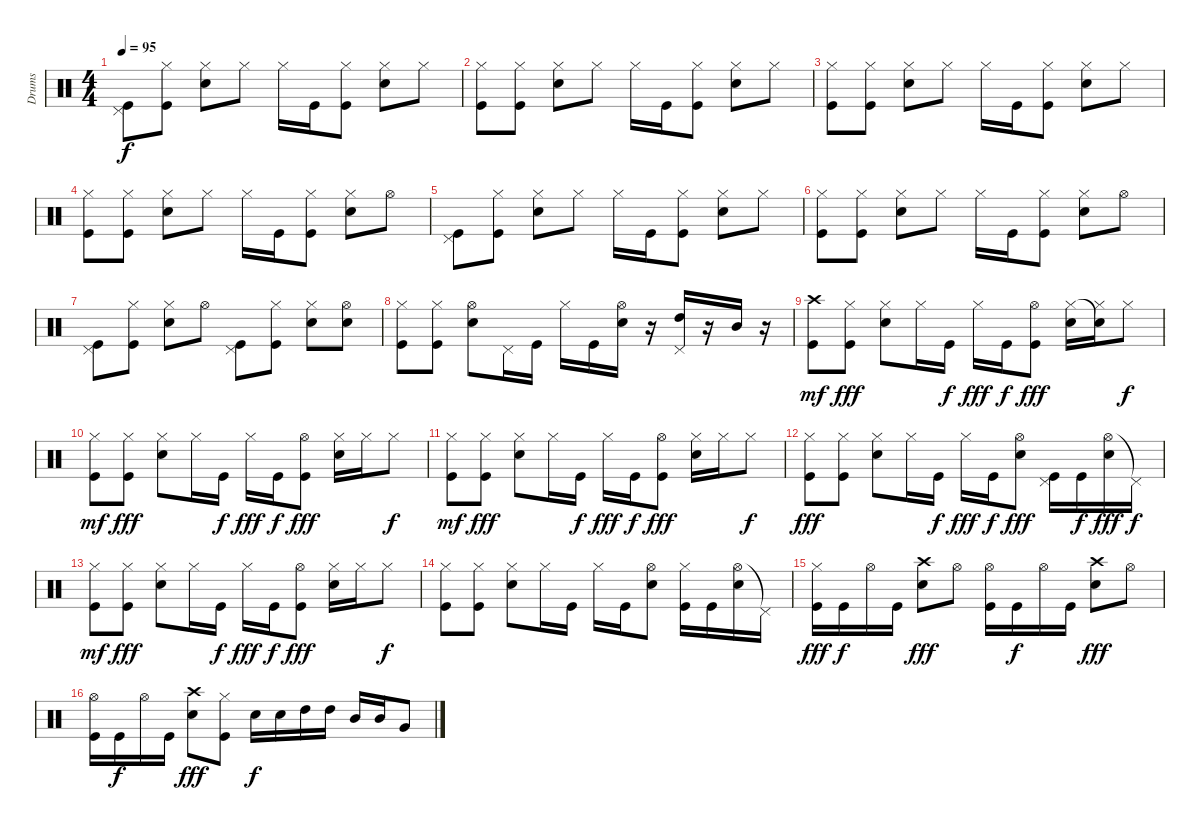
\track ("Drums" "Drums") {instrument percussion}
\staff {score}
\articulation defaults
\ts (4 4)
\tempo 95
\clef neutral
\ks c
("Pedal Hi-Hat (hit)" "Kick (hit)").8{dy f} ("Hi-Hat (closed)" "Kick (hit)").8 ("Hi-Hat (closed)" "Electric Snare (hit)").8 "Hi-Hat (closed)".8 "Hi-Hat (closed)".16 "Kick (hit)".16 ("Hi-Hat (closed)" "Kick (hit)").8 ("Hi-Hat (closed)" "Electric Snare (hit)").8 "Hi-Hat (closed)".8 |
("Hi-Hat (closed)" "Kick (hit)").8 ("Hi-Hat (closed)" "Kick (hit)").8 ("Hi-Hat (closed)" "Electric Snare (hit)").8 "Hi-Hat (closed)".8 "Hi-Hat (closed)".16 "Kick (hit)".16 ("Hi-Hat (closed)" "Kick (hit)").8 ("Hi-Hat (closed)" "Electric Snare (hit)").8 "Hi-Hat (closed)".8 |
("Hi-Hat (closed)" "Kick (hit)").8 ("Hi-Hat (closed)" "Kick (hit)").8 ("Hi-Hat (closed)" "Electric Snare (hit)").8 "Hi-Hat (closed)".8 "Hi-Hat (closed)".16 "Kick (hit)".16 ("Hi-Hat (closed)" "Kick (hit)").8 ("Hi-Hat (closed)" "Electric Snare (hit)").8 "Hi-Hat (closed)".8 |
("Hi-Hat (closed)" "Kick (hit)").8 ("Hi-Hat (closed)" "Kick (hit)").8 ("Hi-Hat (closed)" "Electric Snare (hit)").8 "Hi-Hat (closed)".8 "Hi-Hat (closed)".16 "Kick (hit)".16 ("Hi-Hat (closed)" "Kick (hit)").8 ("Hi-Hat (closed)" "Electric Snare (hit)").8 "Hi-Hat (open)".8 |
("Pedal Hi-Hat (hit)" "Kick (hit)").8 ("Hi-Hat (closed)" "Kick (hit)").8 ("Hi-Hat (closed)" "Electric Snare (hit)").8 "Hi-Hat (closed)".8 "Hi-Hat (closed)".16 "Kick (hit)".16 ("Hi-Hat (closed)" "Kick (hit)").8 ("Hi-Hat (closed)" "Electric Snare (hit)").8 "Hi-Hat (closed)".8 |
("Hi-Hat (closed)" "Kick (hit)").8 ("Hi-Hat (closed)" "Kick (hit)").8 ("Hi-Hat (closed)" "Electric Snare (hit)").8 "Hi-Hat (closed)".8 "Hi-Hat (closed)".16 "Kick (hit)".16 ("Hi-Hat (closed)" "Kick (hit)").8 ("Hi-Hat (closed)" "Electric Snare (hit)").8 "Hi-Hat (open)".8 |
("Pedal Hi-Hat (hit)" "Kick (hit)").8 ("Hi-Hat (closed)" "Kick (hit)").8 ("Hi-Hat (closed)" "Electric Snare (hit)").8 "Hi-Hat (open)".8 ("Pedal Hi-Hat (hit)" "Kick (hit)").8 ("Hi-Hat (closed)" "Kick (hit)").8 ("Hi-Hat (closed)" "Electric Snare (hit)").8 ("Hi-Hat (open)" "Electric Snare (hit)").8 |
("Hi-Hat (closed)" "Kick (hit)").8 ("Hi-Hat (closed)" "Kick (hit)").8 ("Hi-Hat (open)" "Electric Snare (hit)").8 "Pedal Hi-Hat (hit)".16 "Kick (hit)".16 "Hi-Hat (closed)".16 "Kick (hit)".16 ("Hi-Hat (open)" "Electric Snare (hit)").16 r.16 ("Pedal Hi-Hat (hit)" "High Tom (hit)").16 r.16 "Mid Tom (hit)".16 r.16 |
("Crash high (hit)" "Kick (hit)").8{dy mf} ("Hi-Hat (closed)" "Kick (hit)").8{dy fff} ("Hi-Hat (closed)" "Electric Snare (hit)").8 "Hi-Hat (closed)".16 "Kick (hit)".16{dy f} "Hi-Hat (closed)".16{dy fff} "Kick (hit)".16{dy f} ("Hi-Hat (open)" "Kick (hit)").8{dy fff} ("Hi-Hat (closed)" "Electric Snare (hit)").16 ("Snare (hit)"{t} "Hi-Hat (closed)").16 "Hi-Hat (closed)".8{dy f} |
("Hi-Hat (closed)" "Kick (hit)").8{dy mf} ("Hi-Hat (closed)" "Kick (hit)").8{dy fff} ("Hi-Hat (closed)" "Electric Snare (hit)").8 "Hi-Hat (closed)".16 "Kick (hit)".16{dy f} "Hi-Hat (closed)".16{dy fff} "Kick (hit)".16{dy f} ("Hi-Hat (open)" "Kick (hit)").8{dy fff} ("Hi-Hat (closed)" "Electric Snare (hit)").16 "Hi-Hat (closed)".16 "Hi-Hat (closed)".8{dy f} |
("Hi-Hat (closed)" "Kick (hit)").8{dy mf} ("Hi-Hat (closed)" "Kick (hit)").8{dy fff} ("Hi-Hat (closed)" "Electric Snare (hit)").8 "Hi-Hat (closed)".16 "Kick (hit)".16{dy f} "Hi-Hat (closed)".16{dy fff} "Kick (hit)".16{dy f} ("Hi-Hat (open)" "Kick (hit)").8{dy fff} ("Hi-Hat (closed)" "Electric Snare (hit)").16 "Hi-Hat (closed)".16 "Hi-Hat (closed)".8{dy f} |
("Hi-Hat (closed)" "Kick (hit)").8{dy fff} ("Hi-Hat (closed)" "Kick (hit)").8 ("Hi-Hat (closed)" "Electric Snare (hit)").8 "Hi-Hat (closed)".16 "Kick (hit)".16{dy f} "Hi-Hat (closed)".16{dy fff} "Kick (hit)".16{dy f} ("Hi-Hat (open)" "Electric Snare (hit)").8{dy fff} ("Pedal Hi-Hat (hit)" "Kick (hit)").16 "Kick (hit)".16{dy f} ("Hi-Hat (open)" "Electric Snare (hit)").16{dy fff} "Pedal Hi-Hat (hit)"{t}.16{dy f} |
("Hi-Hat (closed)" "Kick (hit)").8{dy mf} ("Hi-Hat (closed)" "Kick (hit)").8{dy fff} ("Hi-Hat (closed)" "Electric Snare (hit)").8 "Hi-Hat (closed)".16 "Kick (hit)".16{dy f} "Hi-Hat (closed)".16{dy fff} "Kick (hit)".16{dy f} ("Hi-Hat (open)" "Kick (hit)").8{dy fff} ("Hi-Hat (closed)" "Electric Snare (hit)").16 "Hi-Hat (closed)".16 "Hi-Hat (closed)".8{dy f} |
("Hi-Hat (closed)" "Kick (hit)").8 ("Hi-Hat (closed)" "Kick (hit)").8 ("Hi-Hat (closed)" "Electric Snare (hit)").8 "Hi-Hat (closed)".16 "Kick (hit)".16 "Hi-Hat (closed)".16 "Kick (hit)".16 ("Hi-Hat (open)" "Electric Snare (hit)").8 ("Hi-Hat (closed)" "Kick (hit)").16 "Kick (hit)".16 ("Hi-Hat (open)" "Electric Snare (hit)").16 "Pedal Hi-Hat (hit)"{t}.16 |
("Hi-Hat (closed)" "Kick (hit)").16{dy fff} "Kick (hit)".16{dy f} "Hi-Hat (open)".16 "Kick (hit)".16 ("Crash high (hit)" "Electric Snare (hit)").8{dy fff} "Hi-Hat (open)".8 ("Hi-Hat (open)" "Kick (hit)").16 "Kick (hit)".16{dy f} "Hi-Hat (open)".16 "Kick (hit)".16 ("Crash high (hit)" "Electric Snare (hit)").8{dy fff} "Hi-Hat (open)".8 |
("Hi-Hat (open)" "Kick (hit)").16 "Kick (hit)".16{dy f} "Hi-Hat (open)".16 "Kick (hit)".16 ("Crash high (hit)" "Electric Snare (hit)").8{dy fff} ("Hi-Hat (closed)" "Kick (hit)").8 "Electric Snare (hit)".16{dy f} "Electric Snare (hit)".16 "High Tom (hit)".16 "High Tom (hit)".16 "Mid Tom (hit)".16 "Mid Tom (hit)".16 "Very Low Tom (hit)".8
